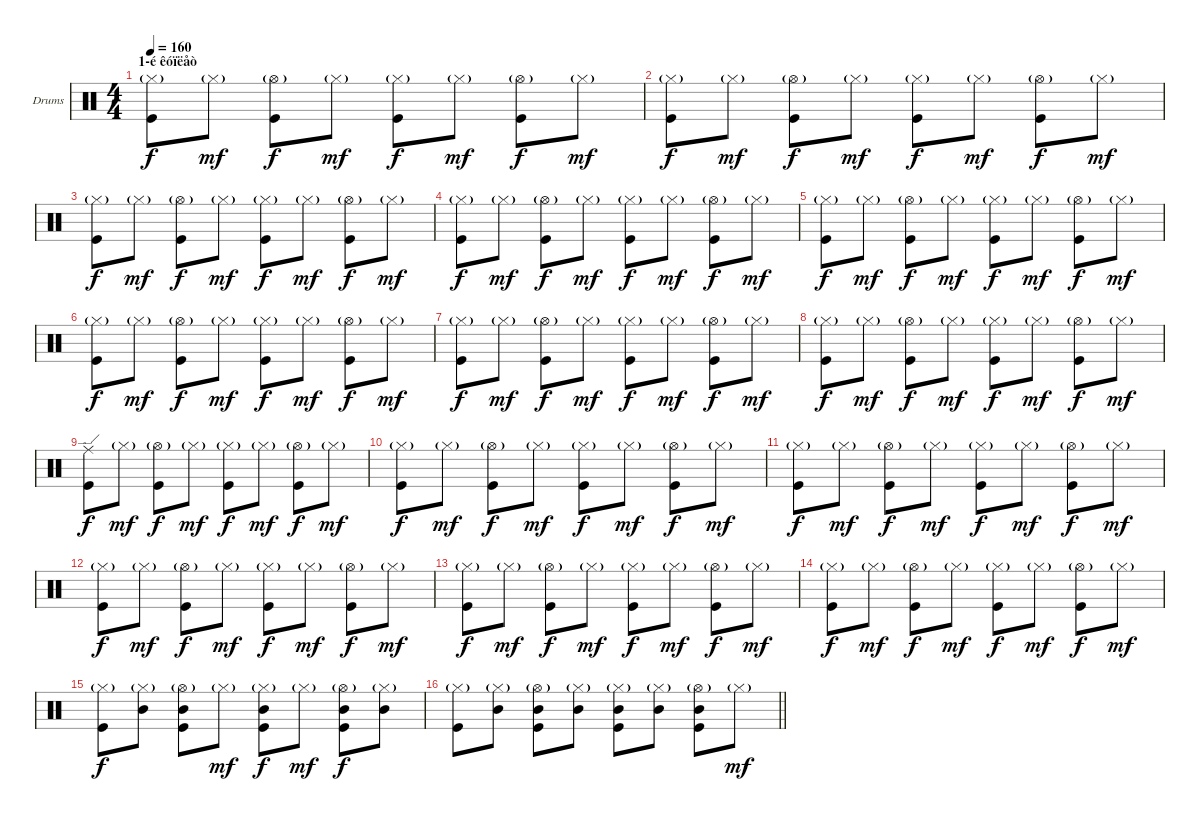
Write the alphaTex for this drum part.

\bracketExtendMode groupsimilarinstruments
\firstSystemTrackNameOrientation horizontal
\otherSystemsTrackNameOrientation horizontal
\track ("Гурьянов" "Drums") {instrument percussion}
\staff {score}
\articulation defaults
\ts (4 4)
\section ("" "1-é êóïëåò")
\tempo 160
\clef neutral
\scale
0.333333
\ks c
("Hi-Hat (closed)"{g} "Kick (hit)").8{dy f} "Hi-Hat (closed)"{g}.8{dy mf} ("Hi-Hat (open)"{g} "Kick (hit)").8{dy f} "Hi-Hat (closed)"{g}.8{dy mf} ("Hi-Hat (closed)"{g} "Kick (hit)").8{dy f} "Hi-Hat (closed)"{g}.8{dy mf} ("Hi-Hat (open)"{g} "Kick (hit)").8{dy f} "Hi-Hat (closed)"{g}.8{dy mf} |
\scale
0.333333 ("Hi-Hat (closed)"{g} "Kick (hit)").8{dy f} "Hi-Hat (closed)"{g}.8{dy mf} ("Hi-Hat (open)"{g} "Kick (hit)").8{dy f} "Hi-Hat (closed)"{g}.8{dy mf} ("Hi-Hat (closed)"{g} "Kick (hit)").8{dy f} "Hi-Hat (closed)"{g}.8{dy mf} ("Hi-Hat (open)"{g} "Kick (hit)").8{dy f} "Hi-Hat (closed)"{g}.8{dy mf} |
\scale
0.333333 ("Hi-Hat (closed)"{g} "Kick (hit)").8{dy f} "Hi-Hat (closed)"{g}.8{dy mf} ("Hi-Hat (open)"{g} "Kick (hit)").8{dy f} "Hi-Hat (closed)"{g}.8{dy mf} ("Hi-Hat (closed)"{g} "Kick (hit)").8{dy f} "Hi-Hat (closed)"{g}.8{dy mf} ("Hi-Hat (open)"{g} "Kick (hit)").8{dy f} "Hi-Hat (closed)"{g}.8{dy mf} |
\scale
0.333333 ("Hi-Hat (closed)"{g} "Kick (hit)").8{dy f} "Hi-Hat (closed)"{g}.8{dy mf} ("Hi-Hat (open)"{g} "Kick (hit)").8{dy f} "Hi-Hat (closed)"{g}.8{dy mf} ("Hi-Hat (closed)"{g} "Kick (hit)").8{dy f} "Hi-Hat (closed)"{g}.8{dy mf} ("Hi-Hat (open)"{g} "Kick (hit)").8{dy f} "Hi-Hat (closed)"{g}.8{dy mf} |
\scale
0.333333 ("Hi-Hat (closed)"{g} "Kick (hit)").8{dy f} "Hi-Hat (closed)"{g}.8{dy mf} ("Hi-Hat (open)"{g} "Kick (hit)").8{dy f} "Hi-Hat (closed)"{g}.8{dy mf} ("Hi-Hat (closed)"{g} "Kick (hit)").8{dy f} "Hi-Hat (closed)"{g}.8{dy mf} ("Hi-Hat (open)"{g} "Kick (hit)").8{dy f} "Hi-Hat (closed)"{g}.8{dy mf} |
\scale
0.333333 ("Hi-Hat (closed)"{g} "Kick (hit)").8{dy f} "Hi-Hat (closed)"{g}.8{dy mf} ("Hi-Hat (open)"{g} "Kick (hit)").8{dy f} "Hi-Hat (closed)"{g}.8{dy mf} ("Hi-Hat (closed)"{g} "Kick (hit)").8{dy f} "Hi-Hat (closed)"{g}.8{dy mf} ("Hi-Hat (open)"{g} "Kick (hit)").8{dy f} "Hi-Hat (closed)"{g}.8{dy mf} |
\scale
0.333333 ("Hi-Hat (closed)"{g} "Kick (hit)").8{dy f} "Hi-Hat (closed)"{g}.8{dy mf} ("Hi-Hat (open)"{g} "Kick (hit)").8{dy f} "Hi-Hat (closed)"{g}.8{dy mf} ("Hi-Hat (closed)"{g} "Kick (hit)").8{dy f} "Hi-Hat (closed)"{g}.8{dy mf} ("Hi-Hat (open)"{g} "Kick (hit)").8{dy f} "Hi-Hat (closed)"{g}.8{dy mf} |
\scale
0.333333 ("Hi-Hat (closed)"{g} "Kick (hit)").8{dy f} "Hi-Hat (closed)"{g}.8{dy mf} ("Hi-Hat (open)"{g} "Kick (hit)").8{dy f} "Hi-Hat (closed)"{g}.8{dy mf} ("Hi-Hat (closed)"{g} "Kick (hit)").8{dy f} "Hi-Hat (closed)"{g}.8{dy mf} ("Hi-Hat (open)"{g} "Kick (hit)").8{dy f} "Hi-Hat (closed)"{g}.8{dy mf} |
\scale
0.333333 ("Ride (edge)" "Kick (hit)").8{dy f} "Hi-Hat (closed)"{g}.8{dy mf} ("Hi-Hat (open)"{g} "Kick (hit)").8{dy f} "Hi-Hat (closed)"{g}.8{dy mf} ("Hi-Hat (closed)"{g} "Kick (hit)").8{dy f} "Hi-Hat (closed)"{g}.8{dy mf} ("Hi-Hat (open)"{g} "Kick (hit)").8{dy f} "Hi-Hat (closed)"{g}.8{dy mf} |
\scale
0.333333 ("Hi-Hat (closed)"{g} "Kick (hit)").8{dy f} "Hi-Hat (closed)"{g}.8{dy mf} ("Hi-Hat (open)"{g} "Kick (hit)").8{dy f} "Hi-Hat (closed)"{g}.8{dy mf} ("Hi-Hat (closed)"{g} "Kick (hit)").8{dy f} "Hi-Hat (closed)"{g}.8{dy mf} ("Hi-Hat (open)"{g} "Kick (hit)").8{dy f} "Hi-Hat (closed)"{g}.8{dy mf} |
\scale
0.333333 ("Hi-Hat (closed)"{g} "Kick (hit)").8{dy f} "Hi-Hat (closed)"{g}.8{dy mf} ("Hi-Hat (open)"{g} "Kick (hit)").8{dy f} "Hi-Hat (closed)"{g}.8{dy mf} ("Hi-Hat (closed)"{g} "Kick (hit)").8{dy f} "Hi-Hat (closed)"{g}.8{dy mf} ("Hi-Hat (open)"{g} "Kick (hit)").8{dy f} "Hi-Hat (closed)"{g}.8{dy mf} |
\scale
0.333333 ("Hi-Hat (closed)"{g} "Kick (hit)").8{dy f} "Hi-Hat (closed)"{g}.8{dy mf} ("Hi-Hat (open)"{g} "Kick (hit)").8{dy f} "Hi-Hat (closed)"{g}.8{dy mf} ("Hi-Hat (closed)"{g} "Kick (hit)").8{dy f} "Hi-Hat (closed)"{g}.8{dy mf} ("Hi-Hat (open)"{g} "Kick (hit)").8{dy f} "Hi-Hat (closed)"{g}.8{dy mf} |
\scale
0.333333 ("Hi-Hat (closed)"{g} "Kick (hit)").8{dy f} "Hi-Hat (closed)"{g}.8{dy mf} ("Hi-Hat (open)"{g} "Kick (hit)").8{dy f} "Hi-Hat (closed)"{g}.8{dy mf} ("Hi-Hat (closed)"{g} "Kick (hit)").8{dy f} "Hi-Hat (closed)"{g}.8{dy mf} ("Hi-Hat (open)"{g} "Kick (hit)").8{dy f} "Hi-Hat (closed)"{g}.8{dy mf} |
\scale
0.333333 ("Hi-Hat (closed)"{g} "Kick (hit)").8{dy f} "Hi-Hat (closed)"{g}.8{dy mf} ("Hi-Hat (open)"{g} "Kick (hit)").8{dy f} "Hi-Hat (closed)"{g}.8{dy mf} ("Hi-Hat (closed)"{g} "Kick (hit)").8{dy f} "Hi-Hat (closed)"{g}.8{dy mf} ("Hi-Hat (open)"{g} "Kick (hit)").8{dy f} "Hi-Hat (closed)"{g}.8{dy mf} |
\scale
0.333333 ("Hi-Hat (closed)"{g} "Kick (hit)").8{dy f} ("Hi-Hat (closed)"{g} "Mid Tom (hit)").8 ("Hi-Hat (open)"{g} "Mid Tom (hit)" "Kick (hit)").8 "Hi-Hat (closed)"{g}.8{dy mf} ("Hi-Hat (closed)"{g} "Mid Tom (hit)" "Kick (hit)").8{dy f} "Hi-Hat (closed)"{g}.8{dy mf} ("Hi-Hat (open)"{g} "Mid Tom (hit)" "Kick (hit)").8{dy f} ("Hi-Hat (closed)"{g} "Mid Tom (hit)").8 |
\scale
0.333333
\barLineRight lightlight
("Hi-Hat (closed)"{g} "Kick (hit)").8 ("Hi-Hat (closed)"{g} "Mid Tom (hit)").8 ("Hi-Hat (open)"{g} "Mid Tom (hit)" "Kick (hit)").8 ("Hi-Hat (closed)"{g} "Mid Tom (hit)").8 ("Hi-Hat (closed)"{g} "Mid Tom (hit)" "Kick (hit)").8 ("Hi-Hat (closed)"{g} "Mid Tom (hit)").8 ("Hi-Hat (open)"{g} "Mid Tom (hit)" "Kick (hit)").8 "Hi-Hat (closed)"{g}.8{dy mf}
